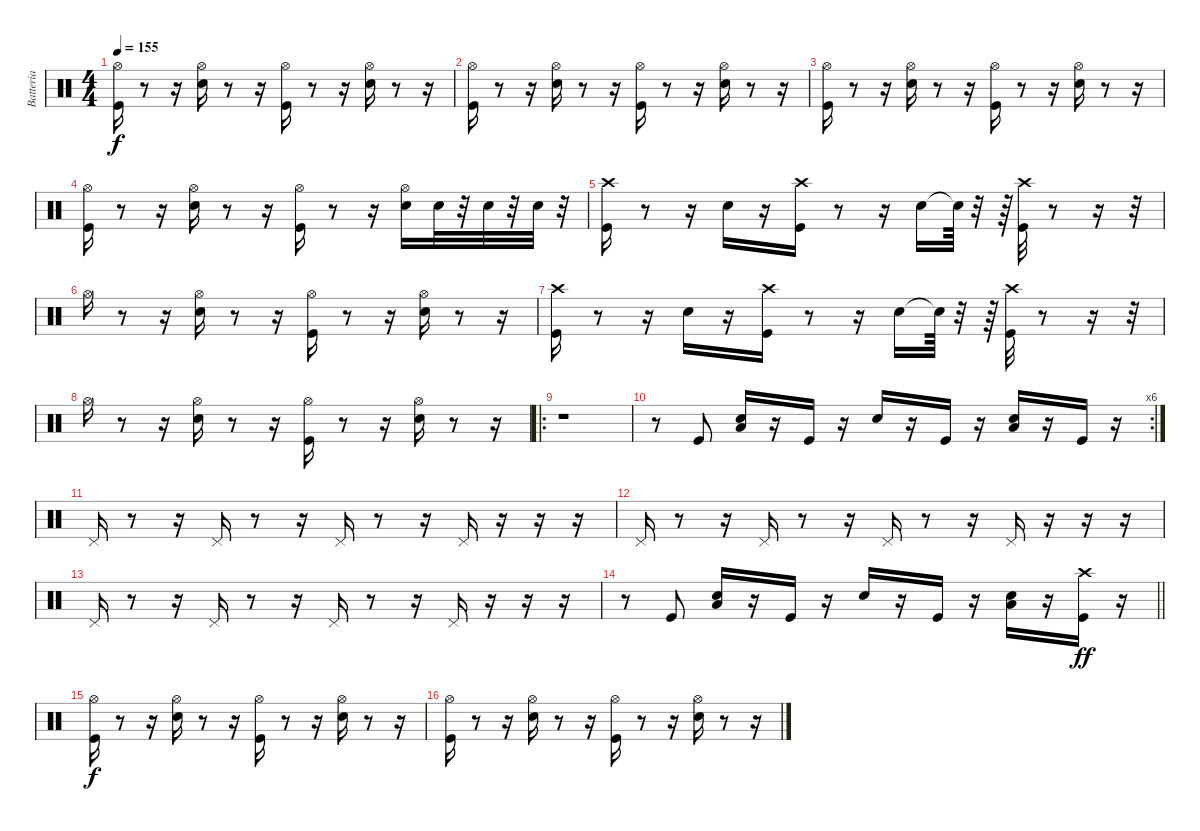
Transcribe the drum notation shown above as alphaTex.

\track ("Batteria" "Batteria") {instrument percussion bank 20}
\staff {score}
\articulation defaults
\ts (4 4)
\tempo 155
\clef neutral
\ks c
("Hi-Hat (open)" "Kick (hit)").16{dy f} r.8 r.16 ("Hi-Hat (open)" "Snare (hit) 2").16 r.8 r.16 ("Kick (hit)" "Hi-Hat (open)").16 r.8 r.16 ("Snare (hit) 2" "Hi-Hat (open)").16 r.8 r.16 |
("Hi-Hat (open)" "Kick (hit)").16 r.8 r.16 ("Hi-Hat (open)" "Snare (hit) 2").16 r.8 r.16 ("Kick (hit)" "Hi-Hat (open)").16 r.8 r.16 ("Snare (hit) 2" "Hi-Hat (open)").16 r.8 r.16 |
("Hi-Hat (open)" "Kick (hit)").16 r.8 r.16 ("Hi-Hat (open)" "Snare (hit) 2").16 r.8 r.16 ("Kick (hit)" "Hi-Hat (open)").16 r.8 r.16 ("Snare (hit) 2" "Hi-Hat (open)").16 r.8 r.16 |
("Kick (hit)" "Hi-Hat (open)").16 r.8 r.16 ("Snare (hit) 2" "Hi-Hat (open)").16 r.8 r.16 ("Kick (hit)" "Hi-Hat (open)").16 r.8 r.16 ("Snare (hit) 2" "Hi-Hat (open)").16 "Snare (hit) 2".32 r.32 "Electric Snare (hit)".32 r.32 "Electric Snare (hit)".32 r.32 |
("Crash high (hit)" "Kick (hit)").16 r.8 r.16 "Snare (hit) 2".16 r.16 ("Kick (hit)" "Crash high (hit)").16 r.8 r.16 "Snare (hit) 2".16 "Snare (hit)"{t}.64 r.32 r.64 ("Kick (hit)" "Crash high (hit)").32 r.8 r.16 r.32 |
"Hi-Hat (open)".16 r.8 r.16 ("Hi-Hat (open)" "Snare (hit) 2").16 r.8 r.16 ("Hi-Hat (open)" "Kick (hit)").16 r.8 r.16 ("Hi-Hat (open)" "Snare (hit) 2").16 r.8 r.16 |
("Kick (hit)" "Crash high (hit)").16 r.8 r.16 "Snare (hit) 2".16 r.16 ("Kick (hit)" "Crash high (hit)").16 r.8 r.16 "Snare (hit) 2".16 "Snare (hit)"{t}.64 r.32 r.64 ("Kick (hit)" "Crash high (hit)").32 r.8 r.16 r.32 |
"Hi-Hat (open)".16 r.8 r.16 ("Hi-Hat (open)" "Snare (hit) 2").16 r.8 r.16 ("Hi-Hat (open)" "Kick (hit)").16 r.8 r.16 ("Hi-Hat (open)" "Snare (hit) 2").16 r.8 r.16 |
\ro
r.1 |
\rc 6
r.8 "Kick (hit)".8 ("Snare (hit) 2" "Low Tom (hit)").16 r.16 "Kick (hit)".16 r.16 "Snare (hit) 2".16 r.16 "Kick (hit)".16 r.16 ("Snare (hit) 2" "Low Tom (hit)").16 r.16 "Kick (hit)".16 r.16 |
"Pedal Hi-Hat (hit)".16 r.8 r.16 "Pedal Hi-Hat (hit)".16 r.8 r.16 "Pedal Hi-Hat (hit)".16 r.8 r.16 "Pedal Hi-Hat (hit)".16 r.16 r.16 r.16 |
"Pedal Hi-Hat (hit)".16 r.8 r.16 "Pedal Hi-Hat (hit)".16 r.8 r.16 "Pedal Hi-Hat (hit)".16 r.8 r.16 "Pedal Hi-Hat (hit)".16 r.16 r.16 r.16 |
"Pedal Hi-Hat (hit)".16 r.8 r.16 "Pedal Hi-Hat (hit)".16 r.8 r.16 "Pedal Hi-Hat (hit)".16 r.8 r.16 "Pedal Hi-Hat (hit)".16 r.16 r.16 r.16 |
\barLineRight lightlight
r.8 "Kick (hit)".8 ("Snare (hit) 2" "Low Tom (hit)").16 r.16 "Kick (hit)".16 r.16 "Snare (hit) 2".16 r.16 "Kick (hit)".16 r.16 ("Snare (hit) 2" "Low Tom (hit)").16 r.16 ("Kick (hit)" "Crash high (hit)").16{dy ff} r.16 |
("Hi-Hat (open)" "Kick (hit)").16{dy f} r.8 r.16 ("Hi-Hat (open)" "Snare (hit) 2").16 r.8 r.16 ("Kick (hit)" "Hi-Hat (open)").16 r.8 r.16 ("Snare (hit) 2" "Hi-Hat (open)").16 r.8 r.16 |
("Hi-Hat (open)" "Kick (hit)").16 r.8 r.16 ("Hi-Hat (open)" "Snare (hit) 2").16 r.8 r.16 ("Kick (hit)" "Hi-Hat (open)").16 r.8 r.16 ("Snare (hit) 2" "Hi-Hat (open)").16 r.8 r.16
